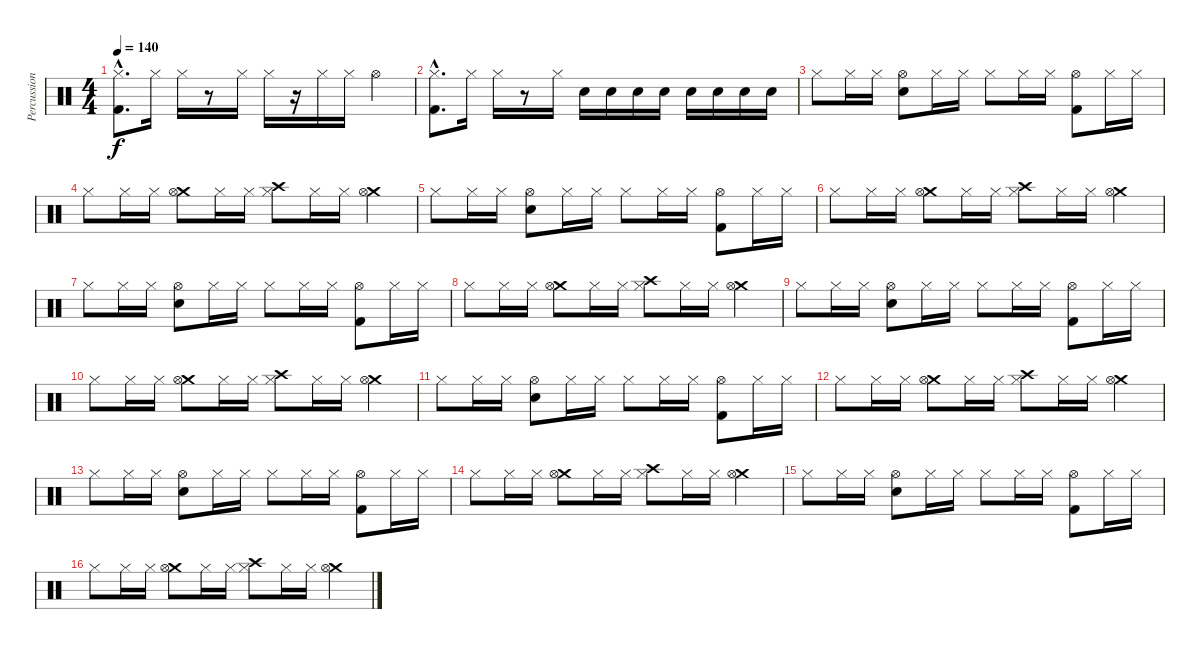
\track ("Percussion" "Percussion") {instrument percussion}
\staff {score}
\articulation defaults
\ts (4 4)
\tempo 140
\clef neutral
\ks c
("Hi-Hat (closed)"{hac} "Kick (hit) 2"{hac}).8{d dy f} "Hi-Hat (closed)".16 "Hi-Hat (closed)".16 r.8 "Hi-Hat (closed)".16 "Hi-Hat (closed)".16 r.16 "Hi-Hat (closed)".16 "Hi-Hat (closed)".16 "Hi-Hat (open)".4 |
("Hi-Hat (closed)"{hac} "Kick (hit) 2"{hac}).8{d} "Hi-Hat (closed)".16 "Hi-Hat (closed)".16 r.8 "Hi-Hat (closed)".16 "Electric Snare (hit)".16 "Electric Snare (hit)".16 "Electric Snare (hit)".16 "Electric Snare (hit)".16 "Electric Snare (hit)".16 "Electric Snare (hit)".16 "Electric Snare (hit)".16 "Electric Snare (hit)".16 |
"Hi-Hat (closed)".8 "Hi-Hat (closed)".16 "Hi-Hat (closed)".16 ("Hi-Hat (open)" "Snare (hit) 2").8 "Hi-Hat (closed)".16 "Hi-Hat (closed)".16 "Hi-Hat (closed)".8 "Hi-Hat (closed)".16 "Hi-Hat (closed)".16 ("Hi-Hat (open)" "Kick (hit) 2").8 "Hi-Hat (closed)".16 "Hi-Hat (closed)".16 |
"Hi-Hat (closed)".8 "Hi-Hat (closed)".16 "Hi-Hat (closed)".16 ("Crash medium (hit)" "Hi-Hat (open)").8 "Hi-Hat (closed)".16 "Hi-Hat (closed)".16 ("Crash high (hit)" "Hi-Hat (closed)").8 "Hi-Hat (closed)".16 "Hi-Hat (closed)".16 ("Crash medium (hit)" "Hi-Hat (open)").4 |
"Hi-Hat (closed)".8 "Hi-Hat (closed)".16 "Hi-Hat (closed)".16 ("Hi-Hat (open)" "Snare (hit) 2").8 "Hi-Hat (closed)".16 "Hi-Hat (closed)".16 "Hi-Hat (closed)".8 "Hi-Hat (closed)".16 "Hi-Hat (closed)".16 ("Hi-Hat (open)" "Kick (hit) 2").8 "Hi-Hat (closed)".16 "Hi-Hat (closed)".16 |
"Hi-Hat (closed)".8 "Hi-Hat (closed)".16 "Hi-Hat (closed)".16 ("Crash medium (hit)" "Hi-Hat (open)").8 "Hi-Hat (closed)".16 "Hi-Hat (closed)".16 ("Crash high (hit)" "Hi-Hat (closed)").8 "Hi-Hat (closed)".16 "Hi-Hat (closed)".16 ("Crash medium (hit)" "Hi-Hat (open)").4 |
"Hi-Hat (closed)".8 "Hi-Hat (closed)".16 "Hi-Hat (closed)".16 ("Hi-Hat (open)" "Snare (hit) 2").8 "Hi-Hat (closed)".16 "Hi-Hat (closed)".16 "Hi-Hat (closed)".8 "Hi-Hat (closed)".16 "Hi-Hat (closed)".16 ("Hi-Hat (open)" "Kick (hit) 2").8 "Hi-Hat (closed)".16 "Hi-Hat (closed)".16 |
"Hi-Hat (closed)".8 "Hi-Hat (closed)".16 "Hi-Hat (closed)".16 ("Crash medium (hit)" "Hi-Hat (open)").8 "Hi-Hat (closed)".16 "Hi-Hat (closed)".16 ("Crash high (hit)" "Hi-Hat (closed)").8 "Hi-Hat (closed)".16 "Hi-Hat (closed)".16 ("Crash medium (hit)" "Hi-Hat (open)").4 |
"Hi-Hat (closed)".8 "Hi-Hat (closed)".16 "Hi-Hat (closed)".16 ("Hi-Hat (open)" "Snare (hit) 2").8 "Hi-Hat (closed)".16 "Hi-Hat (closed)".16 "Hi-Hat (closed)".8 "Hi-Hat (closed)".16 "Hi-Hat (closed)".16 ("Hi-Hat (open)" "Kick (hit) 2").8 "Hi-Hat (closed)".16 "Hi-Hat (closed)".16 |
"Hi-Hat (closed)".8 "Hi-Hat (closed)".16 "Hi-Hat (closed)".16 ("Crash medium (hit)" "Hi-Hat (open)").8 "Hi-Hat (closed)".16 "Hi-Hat (closed)".16 ("Crash high (hit)" "Hi-Hat (closed)").8 "Hi-Hat (closed)".16 "Hi-Hat (closed)".16 ("Crash medium (hit)" "Hi-Hat (open)").4 |
"Hi-Hat (closed)".8 "Hi-Hat (closed)".16 "Hi-Hat (closed)".16 ("Hi-Hat (open)" "Snare (hit) 2").8 "Hi-Hat (closed)".16 "Hi-Hat (closed)".16 "Hi-Hat (closed)".8 "Hi-Hat (closed)".16 "Hi-Hat (closed)".16 ("Hi-Hat (open)" "Kick (hit) 2").8 "Hi-Hat (closed)".16 "Hi-Hat (closed)".16 |
"Hi-Hat (closed)".8 "Hi-Hat (closed)".16 "Hi-Hat (closed)".16 ("Crash medium (hit)" "Hi-Hat (open)").8 "Hi-Hat (closed)".16 "Hi-Hat (closed)".16 ("Crash high (hit)" "Hi-Hat (closed)").8 "Hi-Hat (closed)".16 "Hi-Hat (closed)".16 ("Crash medium (hit)" "Hi-Hat (open)").4 |
"Hi-Hat (closed)".8 "Hi-Hat (closed)".16 "Hi-Hat (closed)".16 ("Hi-Hat (open)" "Snare (hit) 2").8 "Hi-Hat (closed)".16 "Hi-Hat (closed)".16 "Hi-Hat (closed)".8 "Hi-Hat (closed)".16 "Hi-Hat (closed)".16 ("Hi-Hat (open)" "Kick (hit) 2").8 "Hi-Hat (closed)".16 "Hi-Hat (closed)".16 |
"Hi-Hat (closed)".8 "Hi-Hat (closed)".16 "Hi-Hat (closed)".16 ("Crash medium (hit)" "Hi-Hat (open)").8 "Hi-Hat (closed)".16 "Hi-Hat (closed)".16 ("Crash high (hit)" "Hi-Hat (closed)").8 "Hi-Hat (closed)".16 "Hi-Hat (closed)".16 ("Crash medium (hit)" "Hi-Hat (open)").4 |
"Hi-Hat (closed)".8 "Hi-Hat (closed)".16 "Hi-Hat (closed)".16 ("Hi-Hat (open)" "Snare (hit) 2").8 "Hi-Hat (closed)".16 "Hi-Hat (closed)".16 "Hi-Hat (closed)".8 "Hi-Hat (closed)".16 "Hi-Hat (closed)".16 ("Hi-Hat (open)" "Kick (hit) 2").8 "Hi-Hat (closed)".16 "Hi-Hat (closed)".16 |
"Hi-Hat (closed)".8 "Hi-Hat (closed)".16 "Hi-Hat (closed)".16 ("Crash medium (hit)" "Hi-Hat (open)").8 "Hi-Hat (closed)".16 "Hi-Hat (closed)".16 ("Crash high (hit)" "Hi-Hat (closed)").8 "Hi-Hat (closed)".16 "Hi-Hat (closed)".16 ("Crash medium (hit)" "Hi-Hat (open)").4
